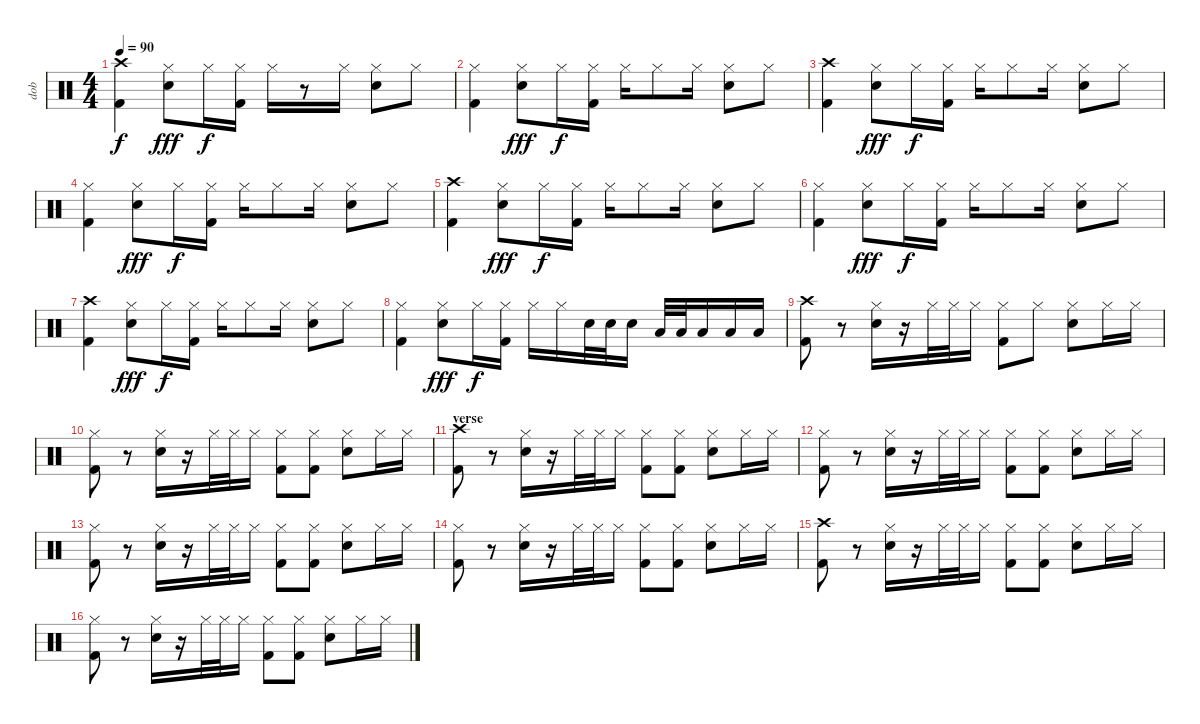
\track ("dob" "dob") {instrument percussion}
\staff {score}
\articulation defaults
\ts (4 4)
\tempo 90
\clef neutral
\ks c
("Crash high (hit)" "Kick (hit) 2").4{dy f} ("Hi-Hat (closed)" "Snare (hit) 2").8{dy fff} "Hi-Hat (closed)".16{dy f} ("Hi-Hat (closed)" "Kick (hit) 2").16 "Hi-Hat (closed)".16 r.8 "Hi-Hat (closed)".16 ("Hi-Hat (closed)" "Snare (hit) 2").8 "Hi-Hat (closed)".8 |
("Hi-Hat (closed)" "Kick (hit) 2").4 ("Hi-Hat (closed)" "Snare (hit) 2").8{dy fff} "Hi-Hat (closed)".16{dy f} ("Hi-Hat (closed)" "Kick (hit) 2").16 "Hi-Hat (closed)".16 "Hi-Hat (closed)".8 "Hi-Hat (closed)".16 ("Hi-Hat (closed)" "Snare (hit) 2").8 "Hi-Hat (closed)".8 |
("Crash high (hit)" "Kick (hit) 2").4 ("Hi-Hat (closed)" "Snare (hit) 2").8{dy fff} "Hi-Hat (closed)".16{dy f} ("Hi-Hat (closed)" "Kick (hit) 2").16 "Hi-Hat (closed)".16 "Hi-Hat (closed)".8 "Hi-Hat (closed)".16 ("Hi-Hat (closed)" "Snare (hit) 2").8 "Hi-Hat (closed)".8 |
("Hi-Hat (closed)" "Kick (hit) 2").4 ("Hi-Hat (closed)" "Snare (hit) 2").8{dy fff} "Hi-Hat (closed)".16{dy f} ("Hi-Hat (closed)" "Kick (hit) 2").16 "Hi-Hat (closed)".16 "Hi-Hat (closed)".8 "Hi-Hat (closed)".16 ("Hi-Hat (closed)" "Snare (hit) 2").8 "Hi-Hat (closed)".8 |
("Crash high (hit)" "Kick (hit) 2").4 ("Hi-Hat (closed)" "Snare (hit) 2").8{dy fff} "Hi-Hat (closed)".16{dy f} ("Hi-Hat (closed)" "Kick (hit) 2").16 "Hi-Hat (closed)".16 "Hi-Hat (closed)".8 "Hi-Hat (closed)".16 ("Hi-Hat (closed)" "Snare (hit) 2").8 "Hi-Hat (closed)".8 |
("Hi-Hat (closed)" "Kick (hit) 2").4 ("Hi-Hat (closed)" "Snare (hit) 2").8{dy fff} "Hi-Hat (closed)".16{dy f} ("Hi-Hat (closed)" "Kick (hit) 2").16 "Hi-Hat (closed)".16 "Hi-Hat (closed)".8 "Hi-Hat (closed)".16 ("Hi-Hat (closed)" "Snare (hit) 2").8 "Hi-Hat (closed)".8 |
("Crash high (hit)" "Kick (hit) 2").4 ("Hi-Hat (closed)" "Snare (hit) 2").8{dy fff} "Hi-Hat (closed)".16{dy f} ("Hi-Hat (closed)" "Kick (hit) 2").16 "Hi-Hat (closed)".16 "Hi-Hat (closed)".8 "Hi-Hat (closed)".16 ("Hi-Hat (closed)" "Snare (hit) 2").8 "Hi-Hat (closed)".8 |
("Hi-Hat (closed)" "Kick (hit) 2").4 ("Hi-Hat (closed)" "Snare (hit) 2").8{dy fff} "Hi-Hat (closed)".16{dy f} ("Hi-Hat (closed)" "Kick (hit) 2").16 "Hi-Hat (closed)".16 "Hi-Hat (closed)".16 "Snare (hit) 2".32 "Snare (hit) 2".32 "Snare (hit) 2".16 "Low Tom (hit)".32 "Low Tom (hit)".32 "Low Tom (hit)".16 "Low Tom (hit)".16 "Low Tom (hit)".16 |
("Crash high (hit)" "Kick (hit) 2").8 r.8 ("Hi-Hat (closed)" "Snare (hit) 2").16 r.16 "Hi-Hat (closed)".32 "Hi-Hat (closed)".32 "Hi-Hat (closed)".16 ("Hi-Hat (closed)" "Kick (hit) 2").8 "Hi-Hat (closed)".8 ("Hi-Hat (closed)" "Snare (hit) 2").8 "Hi-Hat (closed)".16 "Hi-Hat (closed)".16 |
("Hi-Hat (closed)" "Kick (hit) 2").8 r.8 ("Hi-Hat (closed)" "Snare (hit) 2").16 r.16 "Hi-Hat (closed)".32 "Hi-Hat (closed)".32 "Hi-Hat (closed)".16 ("Hi-Hat (closed)" "Kick (hit) 2").8 ("Hi-Hat (closed)" "Kick (hit) 2").8 ("Hi-Hat (closed)" "Snare (hit) 2").8 "Hi-Hat (closed)".16 "Hi-Hat (closed)".16 |
\section ("" "verse")
("Crash high (hit)" "Kick (hit) 2").8 r.8 ("Hi-Hat (closed)" "Snare (hit) 2").16 r.16 "Hi-Hat (closed)".32 "Hi-Hat (closed)".32 "Hi-Hat (closed)".16 ("Hi-Hat (closed)" "Kick (hit) 2").8 ("Hi-Hat (closed)" "Kick (hit) 2").8 ("Hi-Hat (closed)" "Snare (hit) 2").8 "Hi-Hat (closed)".16 "Hi-Hat (closed)".16 |
("Hi-Hat (closed)" "Kick (hit) 2").8 r.8 ("Hi-Hat (closed)" "Snare (hit) 2").16 r.16 "Hi-Hat (closed)".32 "Hi-Hat (closed)".32 "Hi-Hat (closed)".16 ("Hi-Hat (closed)" "Kick (hit) 2").8 ("Hi-Hat (closed)" "Kick (hit) 2").8 ("Hi-Hat (closed)" "Snare (hit) 2").8 "Hi-Hat (closed)".16 "Hi-Hat (closed)".16 |
("Hi-Hat (closed)" "Kick (hit) 2").8 r.8 ("Hi-Hat (closed)" "Snare (hit) 2").16 r.16 "Hi-Hat (closed)".32 "Hi-Hat (closed)".32 "Hi-Hat (closed)".16 ("Hi-Hat (closed)" "Kick (hit) 2").8 ("Hi-Hat (closed)" "Kick (hit) 2").8 ("Hi-Hat (closed)" "Snare (hit) 2").8 "Hi-Hat (closed)".16 "Hi-Hat (closed)".16 |
("Hi-Hat (closed)" "Kick (hit) 2").8 r.8 ("Hi-Hat (closed)" "Snare (hit) 2").16 r.16 "Hi-Hat (closed)".32 "Hi-Hat (closed)".32 "Hi-Hat (closed)".16 ("Hi-Hat (closed)" "Kick (hit) 2").8 ("Hi-Hat (closed)" "Kick (hit) 2").8 ("Hi-Hat (closed)" "Snare (hit) 2").8 "Hi-Hat (closed)".16 "Hi-Hat (closed)".16 |
("Crash high (hit)" "Kick (hit) 2").8 r.8 ("Hi-Hat (closed)" "Snare (hit) 2").16 r.16 "Hi-Hat (closed)".32 "Hi-Hat (closed)".32 "Hi-Hat (closed)".16 ("Hi-Hat (closed)" "Kick (hit) 2").8 ("Hi-Hat (closed)" "Kick (hit) 2").8 ("Hi-Hat (closed)" "Snare (hit) 2").8 "Hi-Hat (closed)".16 "Hi-Hat (closed)".16 |
("Hi-Hat (closed)" "Kick (hit) 2").8 r.8 ("Hi-Hat (closed)" "Snare (hit) 2").16 r.16 "Hi-Hat (closed)".32 "Hi-Hat (closed)".32 "Hi-Hat (closed)".16 ("Hi-Hat (closed)" "Kick (hit) 2").8 ("Hi-Hat (closed)" "Kick (hit) 2").8 ("Hi-Hat (closed)" "Snare (hit) 2").8 "Hi-Hat (closed)".16 "Hi-Hat (closed)".16
